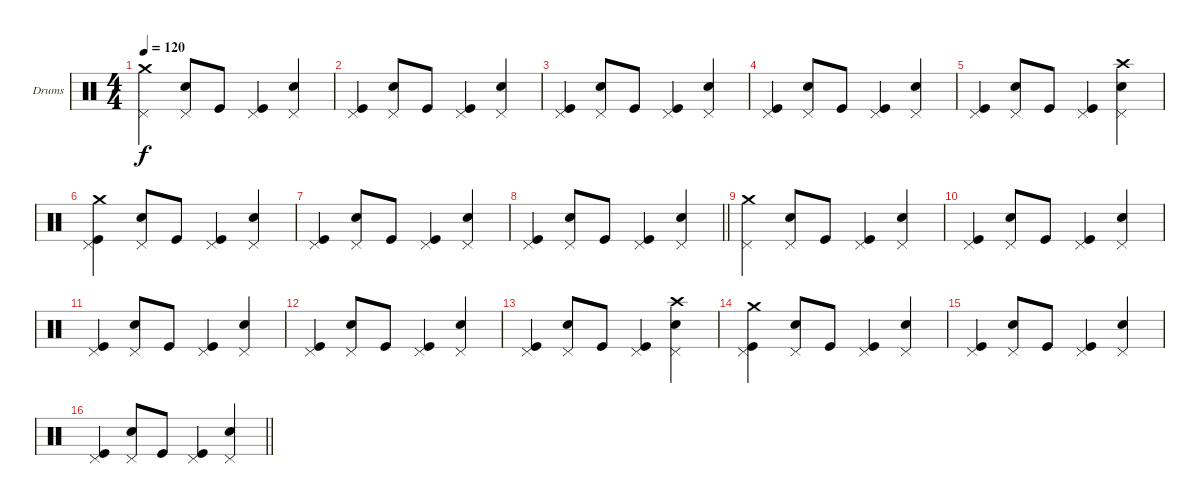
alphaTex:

\bracketExtendMode groupsimilarinstruments
\firstSystemTrackNameOrientation horizontal
\otherSystemsTrackNameOrientation horizontal
\track ("Drumkit" "Drums") {instrument percussion}
\staff {score}
\articulation defaults
\ts (4 4)
\tempo 120
\clef neutral
\ks c
("Crash medium (hit)" "Pedal Hi-Hat (hit)").4{dy f} ("Snare (hit) 2" "Pedal Hi-Hat (hit)").8 "Kick (hit)".8 ("Kick (hit)" "Pedal Hi-Hat (hit)").4 ("Snare (hit) 2" "Pedal Hi-Hat (hit)").4 |
("Kick (hit)" "Pedal Hi-Hat (hit)").4 ("Snare (hit) 2" "Pedal Hi-Hat (hit)").8 "Kick (hit)".8 ("Kick (hit)" "Pedal Hi-Hat (hit)").4 ("Snare (hit) 2" "Pedal Hi-Hat (hit)").4 |
("Kick (hit)" "Pedal Hi-Hat (hit)").4 ("Snare (hit) 2" "Pedal Hi-Hat (hit)").8 "Kick (hit)".8 ("Kick (hit)" "Pedal Hi-Hat (hit)").4 ("Snare (hit) 2" "Pedal Hi-Hat (hit)").4 |
("Kick (hit)" "Pedal Hi-Hat (hit)").4 ("Snare (hit) 2" "Pedal Hi-Hat (hit)").8 "Kick (hit)".8 ("Kick (hit)" "Pedal Hi-Hat (hit)").4 ("Snare (hit) 2" "Pedal Hi-Hat (hit)").4 |
("Kick (hit)" "Pedal Hi-Hat (hit)").4 ("Snare (hit) 2" "Pedal Hi-Hat (hit)").8 "Kick (hit)".8 ("Kick (hit)" "Pedal Hi-Hat (hit)").4 ("Snare (hit) 2" "Crash high (hit)" "Pedal Hi-Hat (hit)").4 |
("Kick (hit)" "Crash medium (hit)" "Pedal Hi-Hat (hit)").4 ("Snare (hit) 2" "Pedal Hi-Hat (hit)").8 "Kick (hit)".8 ("Kick (hit)" "Pedal Hi-Hat (hit)").4 ("Snare (hit) 2" "Pedal Hi-Hat (hit)").4 |
("Kick (hit)" "Pedal Hi-Hat (hit)").4 ("Snare (hit) 2" "Pedal Hi-Hat (hit)").8 "Kick (hit)".8 ("Kick (hit)" "Pedal Hi-Hat (hit)").4 ("Snare (hit) 2" "Pedal Hi-Hat (hit)").4 |
\barLineRight lightlight
("Kick (hit)" "Pedal Hi-Hat (hit)").4 ("Snare (hit) 2" "Pedal Hi-Hat (hit)").8 "Kick (hit)".8 ("Kick (hit)" "Pedal Hi-Hat (hit)").4 ("Snare (hit) 2" "Pedal Hi-Hat (hit)").4 |
("Crash medium (hit)" "Pedal Hi-Hat (hit)").4 ("Snare (hit) 2" "Pedal Hi-Hat (hit)").8 "Kick (hit)".8 ("Kick (hit)" "Pedal Hi-Hat (hit)").4 ("Snare (hit) 2" "Pedal Hi-Hat (hit)").4 |
("Kick (hit)" "Pedal Hi-Hat (hit)").4 ("Snare (hit) 2" "Pedal Hi-Hat (hit)").8 "Kick (hit)".8 ("Kick (hit)" "Pedal Hi-Hat (hit)").4 ("Snare (hit) 2" "Pedal Hi-Hat (hit)").4 |
("Kick (hit)" "Pedal Hi-Hat (hit)").4 ("Snare (hit) 2" "Pedal Hi-Hat (hit)").8 "Kick (hit)".8 ("Kick (hit)" "Pedal Hi-Hat (hit)").4 ("Snare (hit) 2" "Pedal Hi-Hat (hit)").4 |
("Kick (hit)" "Pedal Hi-Hat (hit)").4 ("Snare (hit) 2" "Pedal Hi-Hat (hit)").8 "Kick (hit)".8 ("Kick (hit)" "Pedal Hi-Hat (hit)").4 ("Snare (hit) 2" "Pedal Hi-Hat (hit)").4 |
("Kick (hit)" "Pedal Hi-Hat (hit)").4 ("Snare (hit) 2" "Pedal Hi-Hat (hit)").8 "Kick (hit)".8 ("Kick (hit)" "Pedal Hi-Hat (hit)").4 ("Snare (hit) 2" "Crash high (hit)" "Pedal Hi-Hat (hit)").4 |
("Kick (hit)" "Crash medium (hit)" "Pedal Hi-Hat (hit)").4 ("Snare (hit) 2" "Pedal Hi-Hat (hit)").8 "Kick (hit)".8 ("Kick (hit)" "Pedal Hi-Hat (hit)").4 ("Snare (hit) 2" "Pedal Hi-Hat (hit)").4 |
("Kick (hit)" "Pedal Hi-Hat (hit)").4 ("Snare (hit) 2" "Pedal Hi-Hat (hit)").8 "Kick (hit)".8 ("Kick (hit)" "Pedal Hi-Hat (hit)").4 ("Snare (hit) 2" "Pedal Hi-Hat (hit)").4 |
\barLineRight lightlight
("Kick (hit)" "Pedal Hi-Hat (hit)").4 ("Snare (hit) 2" "Pedal Hi-Hat (hit)").8 "Kick (hit)".8 ("Kick (hit)" "Pedal Hi-Hat (hit)").4 ("Snare (hit) 2" "Pedal Hi-Hat (hit)").4
